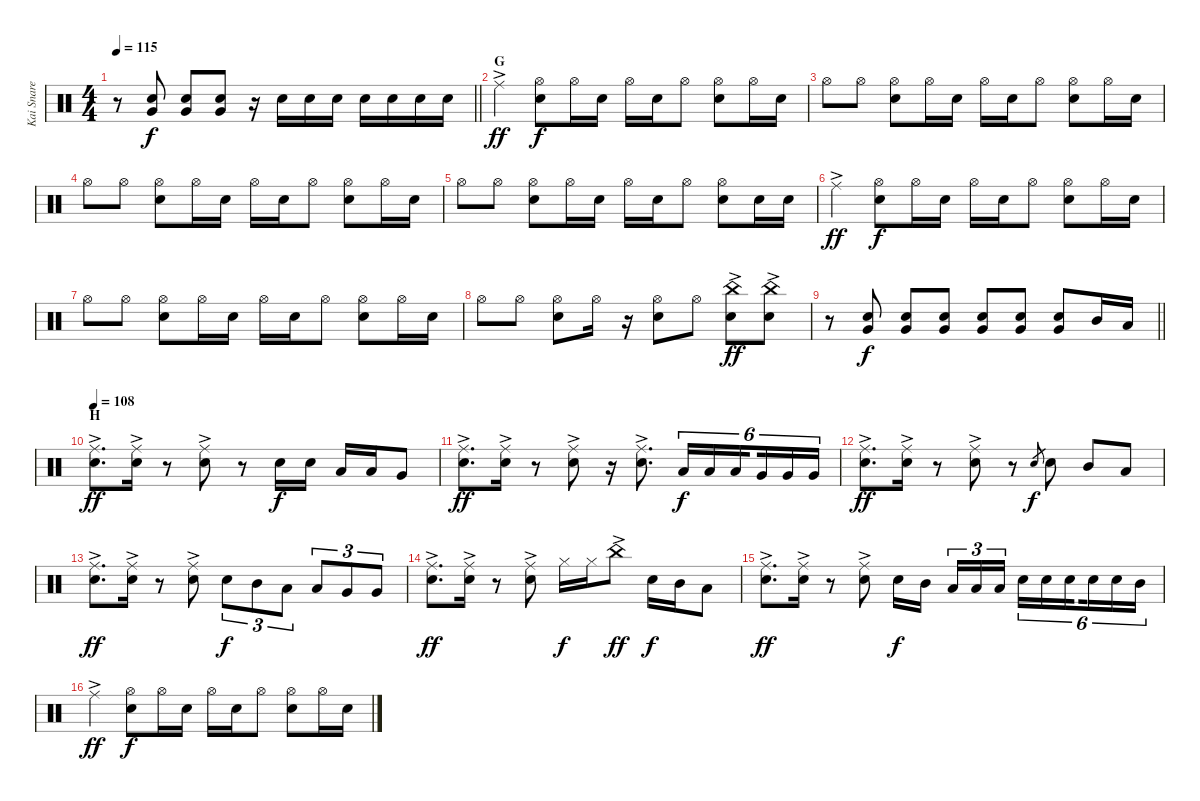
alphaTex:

\track ("Kai Snare" "Kai Snare") {instrument percussion}
\staff {score}
\articulation defaults
\ts (4 4)
\tempo 115
\clef neutral
\barLineRight lightlight
\ks c
r.8{dy ff} ("Very Low Tom (hit)" "Snare (hit) 2").8{dy f} ("Very Low Tom (hit)" "Snare (hit) 2").8 ("Very Low Tom (hit)" "Snare (hit) 2").8 r.16 "Snare (hit) 2".16 "Snare (hit) 2".16 "Snare (hit) 2".16 "Snare (hit) 2".16 "Snare (hit) 2".16 "Snare (hit) 2".16 "Snare (hit) 2".16 |
\section ("" "G")
"Ride (middle)"{ac}.4{dy ff} ("Hi-Hat (open)" "Snare (hit) 2").8{dy f} "Hi-Hat (open)".16 "Snare (hit) 2".16 "Hi-Hat (open)".16 "Snare (hit) 2".16 "Hi-Hat (open)".8 ("Hi-Hat (open)" "Snare (hit) 2").8 "Hi-Hat (open)".16 "Snare (hit) 2".16 |
"Hi-Hat (open)".8 "Hi-Hat (open)".8 ("Hi-Hat (open)" "Snare (hit) 2").8 "Hi-Hat (open)".16 "Snare (hit) 2".16 "Hi-Hat (open)".16 "Snare (hit) 2".16 "Hi-Hat (open)".8 ("Hi-Hat (open)" "Snare (hit) 2").8 "Hi-Hat (open)".16 "Snare (hit) 2".16 |
"Hi-Hat (open)".8 "Hi-Hat (open)".8 ("Hi-Hat (open)" "Snare (hit) 2").8 "Hi-Hat (open)".16 "Snare (hit) 2".16 "Hi-Hat (open)".16 "Snare (hit) 2".16 "Hi-Hat (open)".8 ("Hi-Hat (open)" "Snare (hit) 2").8 "Hi-Hat (open)".16 "Snare (hit) 2".16 |
"Hi-Hat (open)".8 "Hi-Hat (open)".8 ("Hi-Hat (open)" "Snare (hit) 2").8 "Hi-Hat (open)".16 "Snare (hit) 2".16 "Hi-Hat (open)".16 "Snare (hit) 2".16 "Hi-Hat (open)".8 ("Hi-Hat (open)" "Snare (hit) 2").8 "Snare (hit) 2".16 "Snare (hit) 2".16 |
"Ride (middle)"{ac}.4{dy ff} ("Hi-Hat (open)" "Snare (hit) 2").8{dy f} "Hi-Hat (open)".16 "Snare (hit) 2".16 "Hi-Hat (open)".16 "Snare (hit) 2".16 "Hi-Hat (open)".8 ("Hi-Hat (open)" "Snare (hit) 2").8 "Hi-Hat (open)".16 "Snare (hit) 2".16 |
"Hi-Hat (open)".8 "Hi-Hat (open)".8 ("Hi-Hat (open)" "Snare (hit) 2").8 "Hi-Hat (open)".16 "Snare (hit) 2".16 "Hi-Hat (open)".16 "Snare (hit) 2".16 "Hi-Hat (open)".8 ("Hi-Hat (open)" "Snare (hit) 2").8 "Hi-Hat (open)".16 "Snare (hit) 2".16 |
"Hi-Hat (open)".8 "Hi-Hat (open)".8 ("Hi-Hat (open)" "Snare (hit) 2").8 "Hi-Hat (open)".16 r.16 ("Hi-Hat (open)" "Snare (hit) 2").8 "Hi-Hat (open)".8 ("China (hit)"{ac} "Snare (hit) 2").8{dy ff} ("China (hit)"{ac} "Snare (hit) 2").8 |
\barLineRight lightlight
r.8 ("Very Low Tom (hit)" "Snare (hit) 2").8{dy f} ("Very Low Tom (hit)" "Snare (hit) 2").8 ("Very Low Tom (hit)" "Snare (hit) 2").8 ("Very Low Tom (hit)" "Snare (hit) 2").8 ("Very Low Tom (hit)" "Snare (hit) 2").8 ("Very Low Tom (hit)" "Snare (hit) 2").8 "Mid Tom (hit)".16 "Low Tom (hit)".16 |
\section ("" "H")
\tempo 108
("Ride (middle)"{ac} "Snare (hit) 2").8{d dy ff} ("Ride (middle)"{ac} "Snare (hit) 2").16 r.8 ("Ride (middle)"{ac} "Snare (hit) 2").8 r.8 "Snare (hit) 2".16{dy f} "Snare (hit) 2".16 "Low Tom (hit)".16 "Low Tom (hit)".16 "Very Low Tom (hit)".8 |
("Ride (middle)"{ac} "Snare (hit) 2").8{d dy ff} ("Ride (middle)"{ac} "Snare (hit) 2").16 r.8 ("Ride (middle)"{ac} "Snare (hit) 2").8 r.16 ("Ride (middle)"{ac} "Snare (hit) 2").8{d} "Low Tom (hit)".16{tu (6 4) dy f} "Low Tom (hit)".16{tu (6 4)} "Low Tom (hit)".16{tu (6 4) beam splitsecondary} "Very Low Tom (hit)".16{tu (6 4)} "Very Low Tom (hit)".16{tu (6 4)} "Very Low Tom (hit)".16{tu (6 4)} |
("Ride (middle)"{ac} "Snare (hit) 2").8{d dy ff} ("Ride (middle)"{ac} "Snare (hit) 2").16 r.8 ("Ride (middle)"{ac} "Snare (hit) 2").8 r.8 "Snare (hit) 2".8{gr dy f} "Snare (hit) 2".8 "Mid Tom (hit)".8 "Low Tom (hit)".8 |
("Ride (middle)"{ac} "Snare (hit) 2").8{d dy ff} ("Ride (middle)"{ac} "Snare (hit) 2").16 r.8 ("Ride (middle)"{ac} "Snare (hit) 2").8 "Snare (hit) 2".8{tu (3 2) dy f} "Mid Tom (hit)".8{tu (3 2)} "Low Tom (hit)".8{tu (3 2)} "Low Tom (hit)".8{tu (3 2)} "Very Low Tom (hit)".8{tu (3 2)} "Very Low Tom (hit)".8{tu (3 2)} |
("Ride (middle)"{ac} "Snare (hit) 2").8{d dy ff} ("Ride (middle)"{ac} "Snare (hit) 2").16 r.8 ("Ride (middle)"{ac} "Snare (hit) 2").8 "Hi-Hat (closed)".16{dy f} "Hi-Hat (closed)".16 "China (hit)"{ac}.8{dy ff} "Snare (hit) 2".16{dy f} "Mid Tom (hit)".16 "Low Tom (hit)".8 |
("Ride (middle)"{ac} "Snare (hit) 2").8{d dy ff} ("Ride (middle)"{ac} "Snare (hit) 2").16 r.8 ("Ride (middle)"{ac} "Snare (hit) 2").8 "Snare (hit) 2".16{dy f} "Mid Tom (hit)".16{beam splitsecondary} "Low Tom (hit)".16{tu (3 2)} "Low Tom (hit)".16{tu (3 2)} "Low Tom (hit)".16{tu (3 2)} "Snare (hit) 2".16{tu (6 4)} "Snare (hit) 2".16{tu (6 4)} "Snare (hit) 2".16{tu (6 4) beam splitsecondary} "Snare (hit) 2".16{tu (6 4)} "Snare (hit) 2".16{tu (6 4)} "Mid Tom (hit)".16{tu (6 4)} |
"Ride (middle)"{ac}.4{dy ff} ("Hi-Hat (open)" "Snare (hit) 2").8{dy f} "Hi-Hat (open)".16 "Snare (hit) 2".16 "Hi-Hat (open)".16 "Snare (hit) 2".16 "Hi-Hat (open)".8 ("Hi-Hat (open)" "Snare (hit) 2").8 "Hi-Hat (open)".16 "Snare (hit) 2".16
